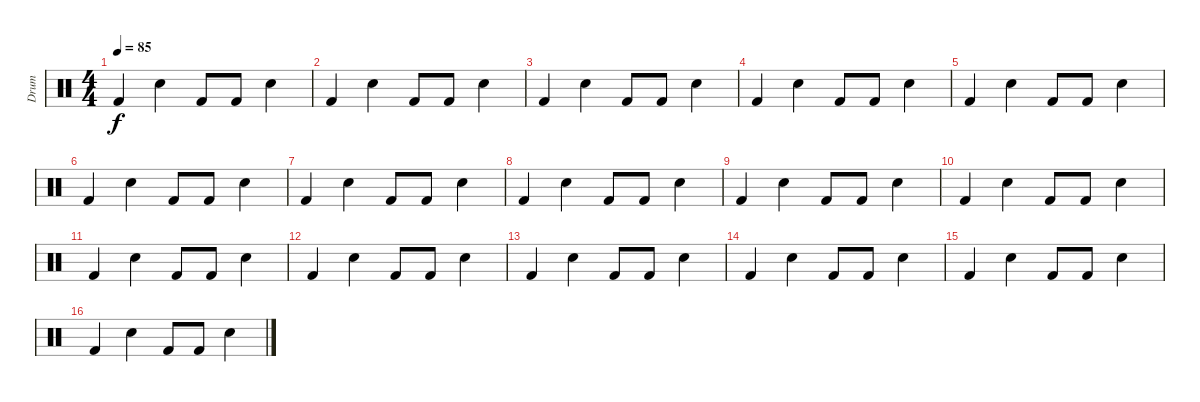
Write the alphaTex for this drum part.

\track ("Drum" "Drum") {instrument percussion}
\staff {score}
\articulation defaults
\ts (4 4)
\tempo 85
\clef neutral
\ks c "Kick (hit) 2".4{dy f} "Snare (hit) 2".4 "Kick (hit) 2".8 "Kick (hit) 2".8 "Snare (hit) 2".4
|
"Kick (hit) 2".4 "Snare (hit) 2".4 "Kick (hit) 2".8 "Kick (hit) 2".8 "Snare (hit) 2".4 |
"Kick (hit) 2".4 "Snare (hit) 2".4 "Kick (hit) 2".8 "Kick (hit) 2".8 "Snare (hit) 2".4 |
"Kick (hit) 2".4 "Snare (hit) 2".4 "Kick (hit) 2".8 "Kick (hit) 2".8 "Snare (hit) 2".4 |
"Kick (hit) 2".4 "Snare (hit) 2".4 "Kick (hit) 2".8 "Kick (hit) 2".8 "Snare (hit) 2".4 |
"Kick (hit) 2".4 "Snare (hit) 2".4 "Kick (hit) 2".8 "Kick (hit) 2".8 "Snare (hit) 2".4 |
"Kick (hit) 2".4 "Snare (hit) 2".4 "Kick (hit) 2".8 "Kick (hit) 2".8 "Snare (hit) 2".4 |
"Kick (hit) 2".4 "Snare (hit) 2".4 "Kick (hit) 2".8 "Kick (hit) 2".8 "Snare (hit) 2".4 |
"Kick (hit) 2".4 "Snare (hit) 2".4 "Kick (hit) 2".8 "Kick (hit) 2".8 "Snare (hit) 2".4 |
"Kick (hit) 2".4 "Snare (hit) 2".4 "Kick (hit) 2".8 "Kick (hit) 2".8 "Snare (hit) 2".4 |
"Kick (hit) 2".4 "Snare (hit) 2".4 "Kick (hit) 2".8 "Kick (hit) 2".8 "Snare (hit) 2".4 |
"Kick (hit) 2".4 "Snare (hit) 2".4 "Kick (hit) 2".8 "Kick (hit) 2".8 "Snare (hit) 2".4 |
"Kick (hit) 2".4 "Snare (hit) 2".4 "Kick (hit) 2".8 "Kick (hit) 2".8 "Snare (hit) 2".4 |
"Kick (hit) 2".4 "Snare (hit) 2".4 "Kick (hit) 2".8 "Kick (hit) 2".8 "Snare (hit) 2".4 |
"Kick (hit) 2".4 "Snare (hit) 2".4 "Kick (hit) 2".8 "Kick (hit) 2".8 "Snare (hit) 2".4 |
"Kick (hit) 2".4 "Snare (hit) 2".4 "Kick (hit) 2".8 "Kick (hit) 2".8 "Snare (hit) 2".4
